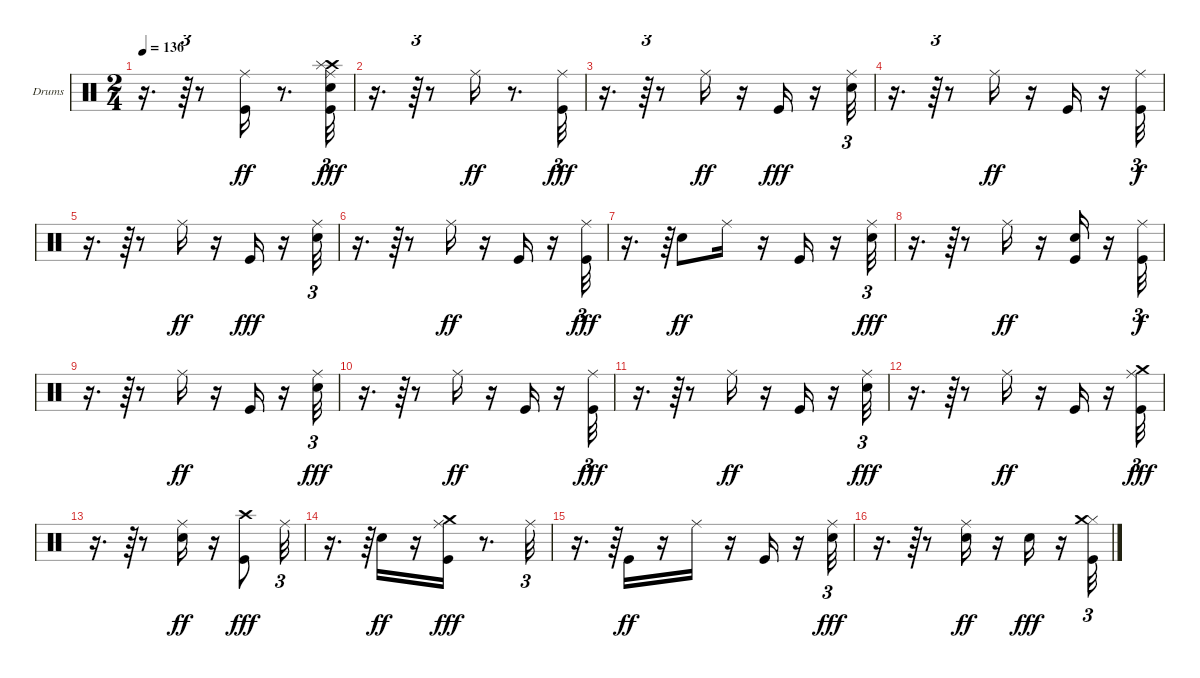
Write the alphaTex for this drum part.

\bracketExtendMode groupsimilarinstruments
\firstSystemTrackNameOrientation horizontal
\otherSystemsTrackNameOrientation horizontal
\track ("Drumkit" "Drums") {solo instrument percussion}
\staff {score}
\articulation defaults
\ts (2 4)
\tempo 136
\clef neutral
\ks c
r.16{d dy fff} r.64{tu (3 2)} r.8 ("Ride (middle)" "Kick (hit)").16{dy ff} r.8{d} ("Crash high (hit)" "Splash (hit)" "Ride (middle)" "Kick (hit)" "Snare (hit) 2").32{tu (3 2) dy fff} |
r.16{d} r.64{tu (3 2)} r.8 "Ride (middle)".16{dy ff} r.8{d} ("Ride (middle)" "Kick (hit)").32{tu (3 2) dy fff} |
r.16{d} r.64{tu (3 2)} r.8 "Ride (middle)".16{dy ff} r.16 "Kick (hit)".16{dy fff} r.16 ("Ride (middle)" "Snare (hit) 2").32{tu (3 2)} |
r.16{d} r.64{tu (3 2)} r.8 "Ride (middle)".16{dy ff} r.16 "Kick (hit)".16 r.16 ("Ride (middle)" "Kick (hit)").32{tu (3 2) dy f} |
r.16{d} r.64{tu (3 2)} r.8 "Ride (middle)".16{dy ff} r.16 "Kick (hit)".16{dy fff} r.16 ("Ride (middle)" "Snare (hit) 2").32{tu (3 2)} |
r.16{d} r.64{tu (3 2)} r.8 "Ride (middle)".16{dy ff} r.16 "Kick (hit)".16 r.16 ("Ride (middle)" "Kick (hit)").32{tu (3 2) dy fff} |
r.16{d} r.64{tu (3 2)} "Snare (hit) 2".8{dy ff} "Ride (middle)".16 r.16 "Kick (hit)".16 r.16 ("Ride (middle)" "Snare (hit) 2").32{tu (3 2) dy fff} |
r.16{d} r.64{tu (3 2)} r.8 "Ride (middle)".16{dy ff} r.16 ("Kick (hit)" "Snare (hit) 2").16 r.16 ("Ride (middle)" "Kick (hit)").32{tu (3 2) dy f} |
r.16{d} r.64{tu (3 2)} r.8 "Ride (middle)".16{dy ff} r.16 "Kick (hit)".16 r.16 ("Ride (middle)" "Snare (hit) 2").32{tu (3 2) dy fff} |
r.16{d} r.64{tu (3 2)} r.8 "Ride (middle)".16{dy ff} r.16 "Kick (hit)".16 r.16 ("Ride (middle)" "Kick (hit)").32{tu (3 2) dy fff} |
r.16{d} r.64{tu (3 2)} r.8 "Ride (middle)".16{dy ff} r.16 "Kick (hit)".16 r.16 ("Ride (middle)" "Snare (hit) 2").32{tu (3 2) dy fff} |
r.16{d} r.64{tu (3 2)} r.8 "Ride (middle)".16{dy ff} r.16 "Kick (hit)".16 r.16 ("Crash medium (hit)" "Ride (middle)" "Kick (hit)").32{tu (3 2) dy fff} |
r.16{d} r.64{tu (3 2)} r.8 ("Ride (middle)" "Snare (hit) 2").16{dy ff} r.16 ("Crash high (hit)" "Kick (hit)").8{dy fff} "Ride (middle)".32{tu (3 2)} |
r.16{d} r.64{tu (3 2)} "Snare (hit) 2".16{dy ff} r.16 ("Crash medium (hit)" "Ride (middle)" "Kick (hit)").16{dy fff} r.8{d} "Ride (middle)".32{tu (3 2)} |
r.16{d} r.64{tu (3 2)} "Kick (hit)".16{dy ff} r.16 "Ride (middle)".16 r.16 "Kick (hit)".16 r.16 ("Ride (middle)" "Snare (hit) 2").32{tu (3 2) dy fff} |
r.16{d} r.64{tu (3 2)} r.8 ("Ride (middle)" "Snare (hit) 2").16{dy ff} r.16 "Snare (hit) 2".16{dy fff} r.16 ("Hi-Hat (closed)" "Kick (hit)" "Crash medium (hit)").32{tu (3 2)}
